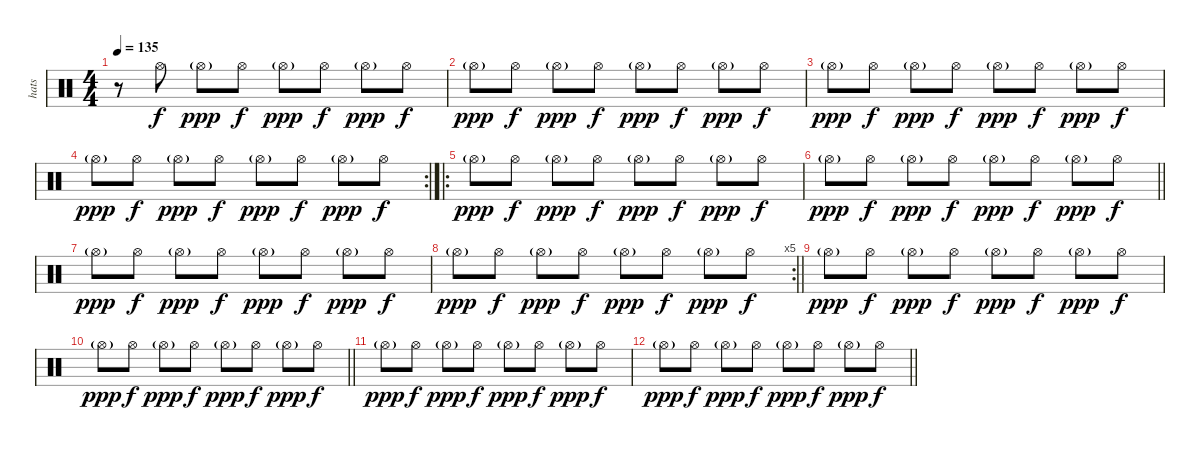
\track ("hats" "hats") {instrument percussion}
\staff {score}
\articulation defaults
\ts (4 4)
\tempo 135
\clef neutral
\ks c
r.8{dy f} "Hi-Hat (open)".8 "Hi-Hat (open)"{g}.8{dy ppp} "Hi-Hat (open)".8{dy f} "Hi-Hat (open)"{g}.8{dy ppp} "Hi-Hat (open)".8{dy f} "Hi-Hat (open)"{g}.8{dy ppp} "Hi-Hat (open)".8{dy f} |
"Hi-Hat (open)"{g}.8{dy ppp} "Hi-Hat (open)".8{dy f} "Hi-Hat (open)"{g}.8{dy ppp} "Hi-Hat (open)".8{dy f} "Hi-Hat (open)"{g}.8{dy ppp} "Hi-Hat (open)".8{dy f} "Hi-Hat (open)"{g}.8{dy ppp} "Hi-Hat (open)".8{dy f} |
"Hi-Hat (open)"{g}.8{dy ppp} "Hi-Hat (open)".8{dy f} "Hi-Hat (open)"{g}.8{dy ppp} "Hi-Hat (open)".8{dy f} "Hi-Hat (open)"{g}.8{dy ppp} "Hi-Hat (open)".8{dy f} "Hi-Hat (open)"{g}.8{dy ppp} "Hi-Hat (open)".8{dy f} |
\rc 2 "Hi-Hat (open)"{g}.8{dy ppp} "Hi-Hat (open)".8{dy f} "Hi-Hat (open)"{g}.8{dy ppp} "Hi-Hat (open)".8{dy f} "Hi-Hat (open)"{g}.8{dy ppp} "Hi-Hat (open)".8{dy f} "Hi-Hat (open)"{g}.8{dy ppp} "Hi-Hat (open)".8{dy f}
|
\ro "Hi-Hat (open)"{g}.8{dy ppp} "Hi-Hat (open)".8{dy f} "Hi-Hat (open)"{g}.8{dy ppp} "Hi-Hat (open)".8{dy f} "Hi-Hat (open)"{g}.8{dy ppp} "Hi-Hat (open)".8{dy f} "Hi-Hat (open)"{g}.8{dy ppp} "Hi-Hat (open)".8{dy f}
|
\barLineRight lightlight "Hi-Hat (open)"{g}.8{dy ppp} "Hi-Hat (open)".8{dy f} "Hi-Hat (open)"{g}.8{dy ppp} "Hi-Hat (open)".8{dy f} "Hi-Hat (open)"{g}.8{dy ppp} "Hi-Hat (open)".8{dy f} "Hi-Hat (open)"{g}.8{dy ppp} "Hi-Hat (open)".8{dy f}
|
"Hi-Hat (open)"{g}.8{dy ppp} "Hi-Hat (open)".8{dy f} "Hi-Hat (open)"{g}.8{dy ppp} "Hi-Hat (open)".8{dy f} "Hi-Hat (open)"{g}.8{dy ppp} "Hi-Hat (open)".8{dy f} "Hi-Hat (open)"{g}.8{dy ppp} "Hi-Hat (open)".8{dy f} |
\rc 5
\barLineRight lightlight "Hi-Hat (open)"{g}.8{dy ppp} "Hi-Hat (open)".8{dy f} "Hi-Hat (open)"{g}.8{dy ppp} "Hi-Hat (open)".8{dy f} "Hi-Hat (open)"{g}.8{dy ppp} "Hi-Hat (open)".8{dy f} "Hi-Hat (open)"{g}.8{dy ppp} "Hi-Hat (open)".8{dy f}
|
"Hi-Hat (open)"{g}.8{dy ppp} "Hi-Hat (open)".8{dy f} "Hi-Hat (open)"{g}.8{dy ppp} "Hi-Hat (open)".8{dy f} "Hi-Hat (open)"{g}.8{dy ppp} "Hi-Hat (open)".8{dy f} "Hi-Hat (open)"{g}.8{dy ppp} "Hi-Hat (open)".8{dy f} |
\barLineRight lightlight "Hi-Hat (open)"{g}.8{dy ppp} "Hi-Hat (open)".8{dy f} "Hi-Hat (open)"{g}.8{dy ppp} "Hi-Hat (open)".8{dy f} "Hi-Hat (open)"{g}.8{dy ppp} "Hi-Hat (open)".8{dy f} "Hi-Hat (open)"{g}.8{dy ppp} "Hi-Hat (open)".8{dy f}
|
"Hi-Hat (open)"{g}.8{dy ppp} "Hi-Hat (open)".8{dy f} "Hi-Hat (open)"{g}.8{dy ppp} "Hi-Hat (open)".8{dy f} "Hi-Hat (open)"{g}.8{dy ppp} "Hi-Hat (open)".8{dy f} "Hi-Hat (open)"{g}.8{dy ppp} "Hi-Hat (open)".8{dy f} |
\barLineRight lightlight "Hi-Hat (open)"{g}.8{dy ppp} "Hi-Hat (open)".8{dy f} "Hi-Hat (open)"{g}.8{dy ppp} "Hi-Hat (open)".8{dy f} "Hi-Hat (open)"{g}.8{dy ppp} "Hi-Hat (open)".8{dy f} "Hi-Hat (open)"{g}.8{dy ppp} "Hi-Hat (open)".8{dy f}
